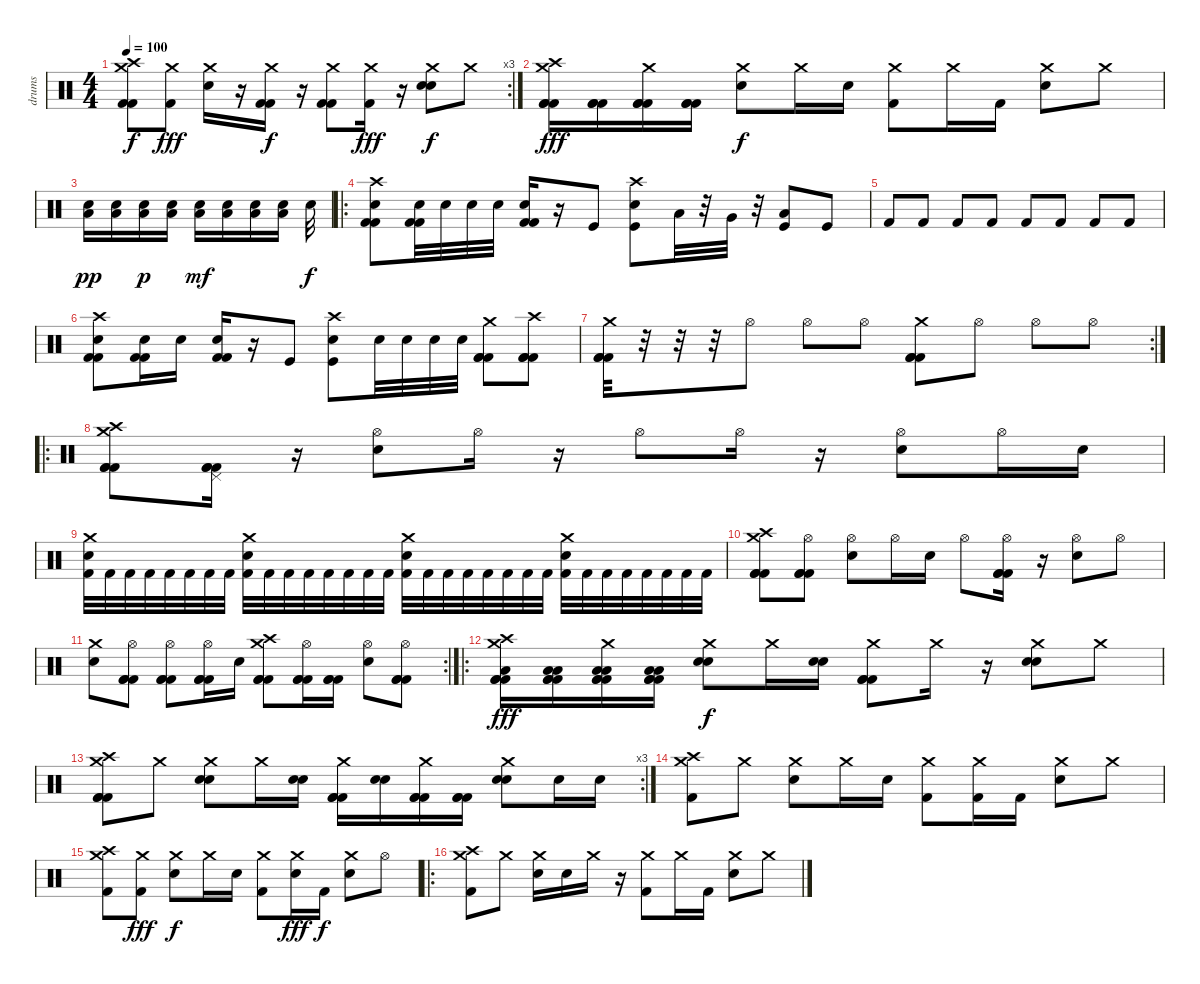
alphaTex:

\track ("drums" "drums") {instrument percussion}
\staff {score}
\articulation defaults
\rc 3
\ts (4 4)
\tempo 100
\clef neutral
\ks c
("Crash medium (hit)" "Crash high (hit)" "Kick (hit) 2" "Kick (hit) 2").8{dy f} ("Crash medium (hit)" "Kick (hit) 2").8{dy fff} ("Crash medium (hit)" "Electric Snare (hit)").16 r.16 ("Crash medium (hit)" "Kick (hit) 2" "Kick (hit) 2").16{dy f} r.16 ("Crash medium (hit)" "Kick (hit) 2" "Kick (hit) 2").8 ("Crash medium (hit)" "Kick (hit) 2").16{dy fff} r.16 ("Crash medium (hit)" "Electric Snare (hit)" "Electric Snare (hit)").8{dy f} "Crash medium (hit)".8 |
("Kick (hit) 2" "Kick (hit) 2" "Kick (hit) 2" "Crash high (hit)" "Crash medium (hit)").16{dy fff} ("Kick (hit) 2" "Kick (hit) 2" "Kick (hit) 2").16 ("Kick (hit) 2" "Kick (hit) 2" "Kick (hit) 2" "Crash medium (hit)").16 ("Kick (hit) 2" "Kick (hit) 2" "Kick (hit) 2").16 ("Crash medium (hit)" "Electric Snare (hit)").8{dy f} "Crash medium (hit)".16 "Electric Snare (hit)".16 ("Crash medium (hit)" "Kick (hit) 2").8 "Crash medium (hit)".16 "Kick (hit) 2".16 ("Crash medium (hit)" "Electric Snare (hit)").8 "Crash medium (hit)".8 |
("Low Floor Tom (hit)" "Electric Snare (hit)").16{dy pp} ("Low Floor Tom (hit)" "Electric Snare (hit)").16 ("Low Floor Tom (hit)" "Electric Snare (hit)").16{dy p} ("Low Floor Tom (hit)" "Electric Snare (hit)").16 ("Low Floor Tom (hit)" "Electric Snare (hit)").16{dy mf} ("Low Floor Tom (hit)" "Electric Snare (hit)").16 ("Low Floor Tom (hit)" "Electric Snare (hit)").16 ("Low Floor Tom (hit)" "Electric Snare (hit)").16 "Electric Snare (hit)".32{dy f} |
\ro
("Crash high (hit)" "Kick (hit) 2" "Electric Snare (hit)" "Kick (hit) 2").8 ("Kick (hit) 2" "Electric Snare (hit)" "Kick (hit) 2").32 "Electric Snare (hit)".32 "Electric Snare (hit)".32 "Electric Snare (hit)".32 ("Kick (hit) 2" "Electric Snare (hit)" "Kick (hit) 2").16 r.16 "Kick (hit)".8 ("Crash high (hit)" "Electric Snare (hit)" "Kick (hit)").8 "Low Tom (hit)".32 r.32 "Very Low Tom (hit)".32 r.32 ("Low Floor Tom (hit)" "Kick (hit)").8 "Kick (hit)".8 |
"Kick (hit) 2".8 "Kick (hit) 2".8 "Kick (hit) 2".8 "Kick (hit) 2".8 "Kick (hit) 2".8 "Kick (hit) 2".8 "Kick (hit) 2".8 "Kick (hit) 2".8 |
("Crash high (hit)" "Kick (hit) 2" "Electric Snare (hit)" "Kick (hit) 2").8 ("Kick (hit) 2" "Electric Snare (hit)" "Kick (hit) 2").16 "Electric Snare (hit)".16 ("Kick (hit) 2" "Electric Snare (hit)" "Kick (hit) 2").16 r.16 "Kick (hit)".8 ("Crash high (hit)" "Electric Snare (hit)" "Kick (hit)").8 "Electric Snare (hit)".32 "Electric Snare (hit)".32 "Electric Snare (hit)".32 "Electric Snare (hit)".32 ("Kick (hit) 2" "Kick (hit) 2" "Crash medium (hit)" "Kick (hit) 2").8 ("Kick (hit) 2" "Kick (hit) 2" "Crash high (hit)" "Kick (hit) 2").8 |
\rc 2
("Crash medium (hit)" "Kick (hit) 2" "Kick (hit) 2" "Kick (hit) 2").32 r.32 r.32 r.32 "Hi-Hat (open)".8 "Hi-Hat (open)".8 "Hi-Hat (open)".8 ("Crash medium (hit)" "Kick (hit) 2" "Kick (hit) 2" "Kick (hit) 2").8 "Hi-Hat (open)".8 "Hi-Hat (open)".8 "Hi-Hat (open)".8 |
\ro
("Crash medium (hit)" "Crash high (hit)" "Kick (hit) 2" "Kick (hit) 2" "Kick (hit) 2").8 ("Pedal Hi-Hat (hit)" "Kick (hit) 2" "Kick (hit) 2" "Kick (hit) 2").16 r.16 ("Hi-Hat (open)" "Electric Snare (hit)").8 "Hi-Hat (open)".16 r.16 "Hi-Hat (open)".8 "Hi-Hat (open)".16 r.16 ("Hi-Hat (open)" "Electric Snare (hit)").8 "Hi-Hat (open)".16 "Electric Snare (hit)".16 |
("Kick (hit) 2" "Electric Snare (hit)" "Crash medium (hit)").32 "Kick (hit) 2".32 "Kick (hit) 2".32 "Kick (hit) 2".32 "Kick (hit) 2".32 "Kick (hit) 2".32 "Kick (hit) 2".32 "Kick (hit) 2".32 ("Kick (hit) 2" "Crash medium (hit)" "Electric Snare (hit)").32 "Kick (hit) 2".32 "Kick (hit) 2".32 "Kick (hit) 2".32 "Kick (hit) 2".32 "Kick (hit) 2".32 "Kick (hit) 2".32 "Kick (hit) 2".32 ("Kick (hit) 2" "Electric Snare (hit)" "Crash medium (hit)").32 "Kick (hit) 2".32 "Kick (hit) 2".32 "Kick (hit) 2".32 "Kick (hit) 2".32 "Kick (hit) 2".32 "Kick (hit) 2".32 "Kick (hit) 2".32 ("Kick (hit) 2" "Electric Snare (hit)" "Crash medium (hit)").32 "Kick (hit) 2".32 "Kick (hit) 2".32 "Kick (hit) 2".32 "Kick (hit) 2".32 "Kick (hit) 2".32 "Kick (hit) 2".32 "Kick (hit) 2".32 |
("Crash medium (hit)" "Crash high (hit)" "Kick (hit) 2" "Kick (hit) 2" "Kick (hit) 2").8 ("Hi-Hat (open)" "Kick (hit) 2" "Kick (hit) 2" "Kick (hit) 2").8 ("Hi-Hat (open)" "Electric Snare (hit)").8 "Hi-Hat (open)".16 "Electric Snare (hit)".16 "Hi-Hat (open)".8 ("Hi-Hat (open)" "Kick (hit) 2" "Kick (hit) 2" "Kick (hit) 2").16 r.16 ("Hi-Hat (open)" "Electric Snare (hit)").8 "Hi-Hat (open)".8 |
\rc 2
("Crash medium (hit)" "Electric Snare (hit)").8 ("Hi-Hat (open)" "Kick (hit) 2" "Kick (hit) 2" "Kick (hit) 2").8 ("Hi-Hat (open)" "Kick (hit) 2" "Kick (hit) 2" "Kick (hit) 2").8 ("Hi-Hat (open)" "Kick (hit) 2" "Kick (hit) 2" "Kick (hit) 2").16 "Electric Snare (hit)".16 ("Crash high (hit)" "Crash medium (hit)" "Kick (hit) 2" "Kick (hit) 2" "Kick (hit) 2").8 ("Hi-Hat (open)" "Kick (hit) 2" "Kick (hit) 2" "Kick (hit) 2").16 ("Kick (hit) 2" "Kick (hit) 2" "Kick (hit) 2").16 ("Hi-Hat (open)" "Electric Snare (hit)").8 ("Hi-Hat (open)" "Kick (hit) 2" "Kick (hit) 2" "Kick (hit) 2").8 |
\ro
("Kick (hit) 2" "Kick (hit) 2" "Kick (hit) 2" "Crash high (hit)" "Low Tom (hit)" "Crash medium (hit)").16{dy fff} ("Kick (hit) 2" "Kick (hit) 2" "Kick (hit) 2" "Low Floor Tom (hit)" "Low Tom (hit)").16 ("Kick (hit) 2" "Kick (hit) 2" "Kick (hit) 2" "Low Tom (hit)" "Low Floor Tom (hit)" "Crash medium (hit)").16 ("Kick (hit) 2" "Kick (hit) 2" "Kick (hit) 2" "Low Tom (hit)" "Low Floor Tom (hit)").16 ("Crash medium (hit)" "Electric Snare (hit)" "Electric Snare (hit)").8{dy f} "Crash medium (hit)".16 ("Electric Snare (hit)" "Electric Snare (hit)").16 ("Crash medium (hit)" "Kick (hit) 2" "Kick (hit) 2" "Kick (hit) 2").8 "Crash medium (hit)".16 r.16 ("Crash medium (hit)" "Electric Snare (hit)" "Electric Snare (hit)").8 "Crash medium (hit)".8 |
\rc 3
("Crash medium (hit)" "Crash high (hit)" "Kick (hit) 2" "Kick (hit) 2" "Kick (hit) 2").8 "Crash medium (hit)".8 ("Crash medium (hit)" "Electric Snare (hit)" "Electric Snare (hit)").8 "Crash medium (hit)".16 ("Electric Snare (hit)" "Electric Snare (hit)").16 ("Crash medium (hit)" "Kick (hit) 2" "Kick (hit) 2" "Kick (hit) 2").16 ("Electric Snare (hit)" "Electric Snare (hit)").16 ("Crash medium (hit)" "Kick (hit) 2" "Kick (hit) 2" "Kick (hit) 2").16 ("Kick (hit) 2" "Kick (hit) 2" "Kick (hit) 2").16 ("Crash medium (hit)" "Electric Snare (hit)" "Electric Snare (hit)").8 "Electric Snare (hit)".16 "Electric Snare (hit)".16 |
("Crash medium (hit)" "Crash high (hit)" "Kick (hit) 2").8 "Crash medium (hit)".8 ("Crash medium (hit)" "Electric Snare (hit)").8 "Crash medium (hit)".16 "Electric Snare (hit)".16 ("Crash medium (hit)" "Kick (hit) 2").8 ("Crash medium (hit)" "Kick (hit) 2").16 "Kick (hit) 2".16 ("Crash medium (hit)" "Electric Snare (hit)").8 "Crash medium (hit)".8 |
("Crash medium (hit)" "Crash high (hit)" "Kick (hit) 2").8 ("Crash medium (hit)" "Kick (hit) 2").8{dy fff} ("Crash medium (hit)" "Electric Snare (hit)").8{dy f} "Crash medium (hit)".16 "Electric Snare (hit)".16 ("Crash medium (hit)" "Kick (hit) 2").8 ("Crash medium (hit)" "Electric Snare (hit)").16{dy fff} "Kick (hit) 2".16{dy f} ("Crash medium (hit)" "Electric Snare (hit)").8 "Hi-Hat (open)".8 |
\ro
("Crash medium (hit)" "Crash high (hit)" "Kick (hit) 2").8 "Crash medium (hit)".8 ("Crash medium (hit)" "Electric Snare (hit)").16 "Electric Snare (hit)".16 "Crash medium (hit)".16 r.16 ("Crash medium (hit)" "Kick (hit) 2").8 "Crash medium (hit)".16 "Kick (hit) 2".16 ("Crash medium (hit)" "Electric Snare (hit)").8 "Crash medium (hit)".8
